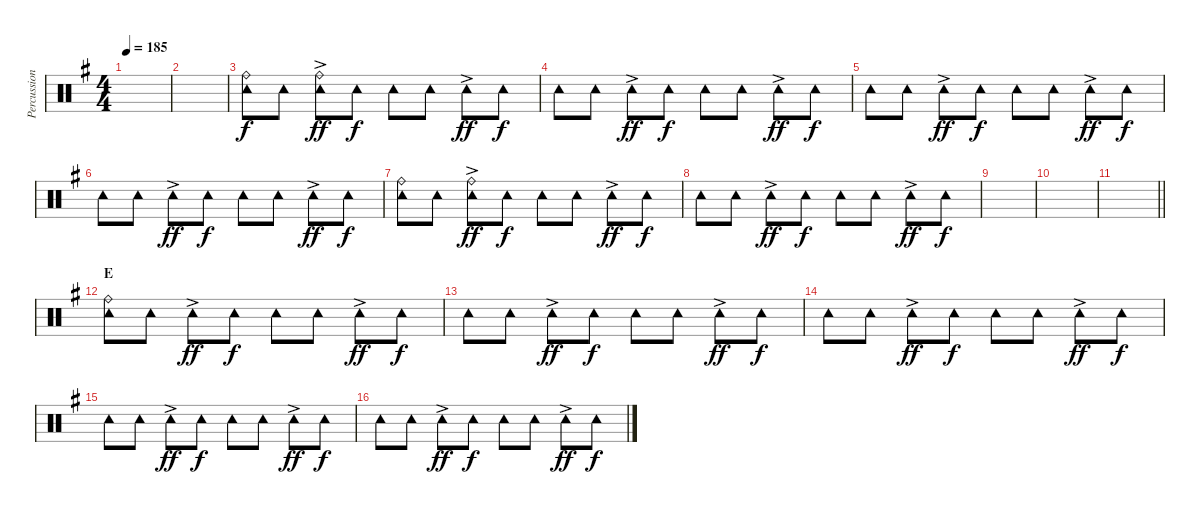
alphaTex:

\track ("Percussion I" "Percussion") {instrument percussion}
\staff {score}
\articulation defaults
\ts (4 4)
\tempo 185
\clef neutral
\ks g
|
|
("Ride (bell)" "Tambourine (hit)").8 "Tambourine (hit)".8 ("Ride (bell)" "Tambourine (hit)"{ac}).8{dy ff} "Tambourine (hit)".8{dy f} "Tambourine (hit)".8 "Tambourine (hit)".8 "Tambourine (hit)"{ac}.8{dy ff} "Tambourine (hit)".8{dy f} |
"Tambourine (hit)".8 "Tambourine (hit)".8 "Tambourine (hit)"{ac}.8{dy ff} "Tambourine (hit)".8{dy f} "Tambourine (hit)".8 "Tambourine (hit)".8 "Tambourine (hit)"{ac}.8{dy ff} "Tambourine (hit)".8{dy f} |
"Tambourine (hit)".8 "Tambourine (hit)".8 "Tambourine (hit)"{ac}.8{dy ff} "Tambourine (hit)".8{dy f} "Tambourine (hit)".8 "Tambourine (hit)".8 "Tambourine (hit)"{ac}.8{dy ff} "Tambourine (hit)".8{dy f} |
"Tambourine (hit)".8 "Tambourine (hit)".8 "Tambourine (hit)"{ac}.8{dy ff} "Tambourine (hit)".8{dy f} "Tambourine (hit)".8 "Tambourine (hit)".8 "Tambourine (hit)"{ac}.8{dy ff} "Tambourine (hit)".8{dy f} |
("Ride (bell)" "Tambourine (hit)").8 "Tambourine (hit)".8 ("Ride (bell)" "Tambourine (hit)"{ac}).8{dy ff} "Tambourine (hit)".8{dy f} "Tambourine (hit)".8 "Tambourine (hit)".8 "Tambourine (hit)"{ac}.8{dy ff} "Tambourine (hit)".8{dy f} |
"Tambourine (hit)".8 "Tambourine (hit)".8 "Tambourine (hit)"{ac}.8{dy ff} "Tambourine (hit)".8{dy f} "Tambourine (hit)".8 "Tambourine (hit)".8 "Tambourine (hit)"{ac}.8{dy ff} "Tambourine (hit)".8{dy f} |
|
|
\barLineRight lightlight
|
\section ("" "E")
("Ride (bell)" "Tambourine (hit)").8 "Tambourine (hit)".8 "Tambourine (hit)"{ac}.8{dy ff} "Tambourine (hit)".8{dy f} "Tambourine (hit)".8 "Tambourine (hit)".8 "Tambourine (hit)"{ac}.8{dy ff} "Tambourine (hit)".8{dy f} |
"Tambourine (hit)".8 "Tambourine (hit)".8 "Tambourine (hit)"{ac}.8{dy ff} "Tambourine (hit)".8{dy f} "Tambourine (hit)".8 "Tambourine (hit)".8 "Tambourine (hit)"{ac}.8{dy ff} "Tambourine (hit)".8{dy f} |
"Tambourine (hit)".8 "Tambourine (hit)".8 "Tambourine (hit)"{ac}.8{dy ff} "Tambourine (hit)".8{dy f} "Tambourine (hit)".8 "Tambourine (hit)".8 "Tambourine (hit)"{ac}.8{dy ff} "Tambourine (hit)".8{dy f} |
"Tambourine (hit)".8 "Tambourine (hit)".8 "Tambourine (hit)"{ac}.8{dy ff} "Tambourine (hit)".8{dy f} "Tambourine (hit)".8 "Tambourine (hit)".8 "Tambourine (hit)"{ac}.8{dy ff} "Tambourine (hit)".8{dy f} |
"Tambourine (hit)".8 "Tambourine (hit)".8 "Tambourine (hit)"{ac}.8{dy ff} "Tambourine (hit)".8{dy f} "Tambourine (hit)".8 "Tambourine (hit)".8 "Tambourine (hit)"{ac}.8{dy ff} "Tambourine (hit)".8{dy f}
